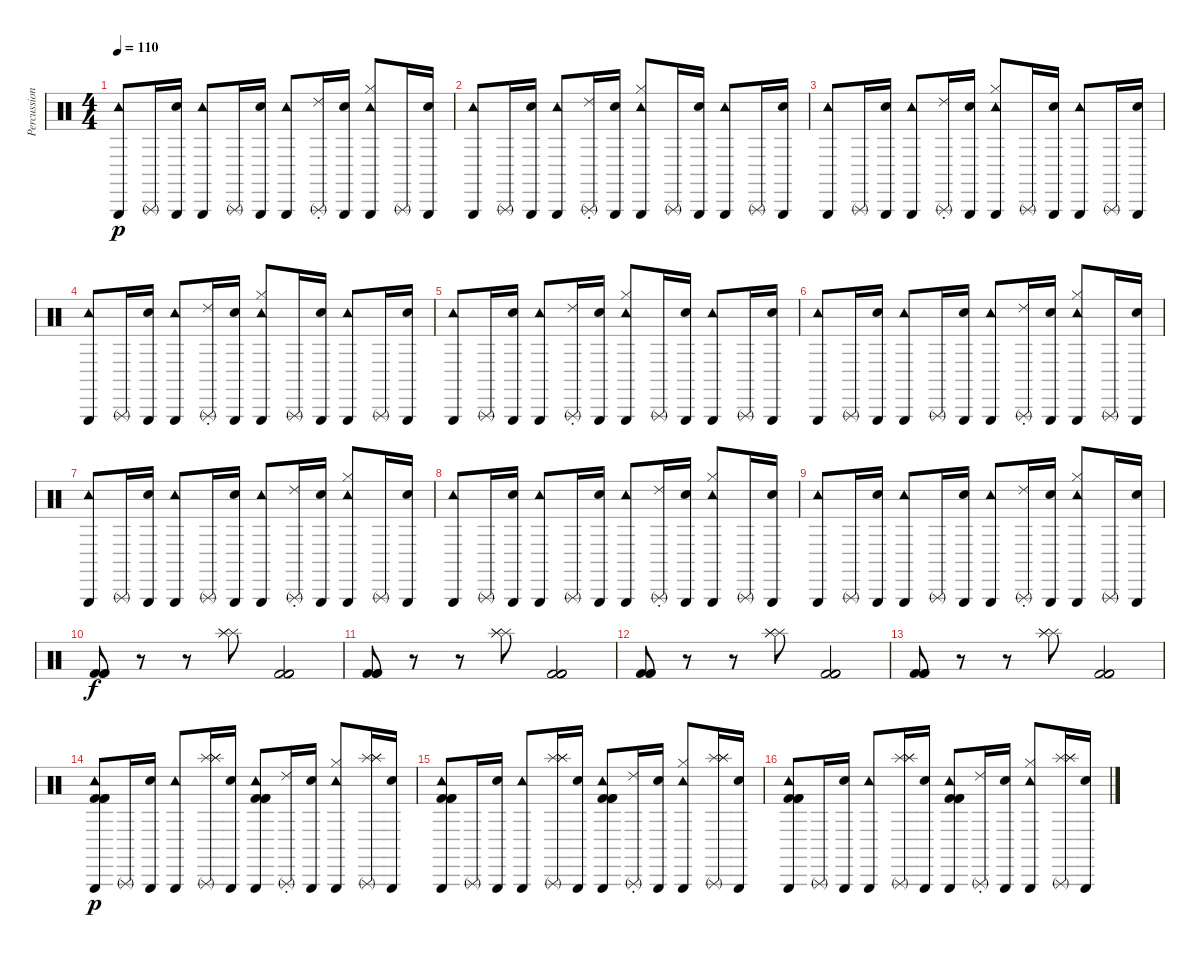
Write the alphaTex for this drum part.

\track ("Percussion" "Percussion") {instrument percussion}
\staff {score}
\articulation defaults
\ts (4 4)
\tempo 110
\clef neutral
\ks c
("Tambourine (hit)" "Triangle (hit)").8{dy p} "Triangle (rnute)".16 ("Metronome (bell)" "Triangle (hit)").16 ("Tambourine (hit)" "Triangle (hit)").8 "Triangle (rnute)".16 ("Metronome (bell)" "Triangle (hit)").16 ("Tambourine (hit)" "Triangle (hit)").8 ("Triangle (rnute)" "Ride (choke) 2").16 ("Metronome (bell)" "Triangle (hit)").16 ("Tambourine (hit)" "Triangle (hit)" "Hi-Hat (closed)").8 "Triangle (rnute)".16 ("Metronome (bell)" "Triangle (hit)").16 |
("Tambourine (hit)" "Triangle (hit)").8 "Triangle (rnute)".16 ("Metronome (bell)" "Triangle (hit)").16 ("Tambourine (hit)" "Triangle (hit)").8 ("Triangle (rnute)" "Ride (choke) 2").16 ("Metronome (bell)" "Triangle (hit)").16 ("Tambourine (hit)" "Triangle (hit)" "Hi-Hat (closed)").8 "Triangle (rnute)".16 ("Metronome (bell)" "Triangle (hit)").16 ("Tambourine (hit)" "Triangle (hit)").8 "Triangle (rnute)".16 ("Metronome (bell)" "Triangle (hit)").16 |
("Tambourine (hit)" "Triangle (hit)").8 "Triangle (rnute)".16 ("Metronome (bell)" "Triangle (hit)").16 ("Tambourine (hit)" "Triangle (hit)").8 ("Triangle (rnute)" "Ride (choke) 2").16 ("Metronome (bell)" "Triangle (hit)").16 ("Tambourine (hit)" "Triangle (hit)" "Hi-Hat (closed)").8 "Triangle (rnute)".16 ("Metronome (bell)" "Triangle (hit)").16 ("Tambourine (hit)" "Triangle (hit)").8 "Triangle (rnute)".16 ("Metronome (bell)" "Triangle (hit)").16 |
("Tambourine (hit)" "Triangle (hit)").8 "Triangle (rnute)".16 ("Metronome (bell)" "Triangle (hit)").16 ("Tambourine (hit)" "Triangle (hit)").8 ("Triangle (rnute)" "Ride (choke) 2").16 ("Metronome (bell)" "Triangle (hit)").16 ("Tambourine (hit)" "Triangle (hit)" "Hi-Hat (closed)").8 "Triangle (rnute)".16 ("Metronome (bell)" "Triangle (hit)").16 ("Tambourine (hit)" "Triangle (hit)").8 "Triangle (rnute)".16 ("Metronome (bell)" "Triangle (hit)").16 |
("Tambourine (hit)" "Triangle (hit)").8 "Triangle (rnute)".16 ("Metronome (bell)" "Triangle (hit)").16 ("Tambourine (hit)" "Triangle (hit)").8 ("Triangle (rnute)" "Ride (choke) 2").16 ("Metronome (bell)" "Triangle (hit)").16 ("Tambourine (hit)" "Triangle (hit)" "Hi-Hat (closed)").8 "Triangle (rnute)".16 ("Metronome (bell)" "Triangle (hit)").16 ("Tambourine (hit)" "Triangle (hit)").8 "Triangle (rnute)".16 ("Metronome (bell)" "Triangle (hit)").16 |
("Tambourine (hit)" "Triangle (hit)").8 "Triangle (rnute)".16 ("Metronome (bell)" "Triangle (hit)").16 ("Tambourine (hit)" "Triangle (hit)").8 "Triangle (rnute)".16 ("Metronome (bell)" "Triangle (hit)").16 ("Tambourine (hit)" "Triangle (hit)").8 ("Triangle (rnute)" "Ride (choke) 2").16 ("Metronome (bell)" "Triangle (hit)").16 ("Tambourine (hit)" "Triangle (hit)" "Hi-Hat (closed)").8 "Triangle (rnute)".16 ("Metronome (bell)" "Triangle (hit)").16 |
("Tambourine (hit)" "Triangle (hit)").8 "Triangle (rnute)".16 ("Metronome (bell)" "Triangle (hit)").16 ("Tambourine (hit)" "Triangle (hit)").8 "Triangle (rnute)".16 ("Metronome (bell)" "Triangle (hit)").16 ("Tambourine (hit)" "Triangle (hit)").8 ("Triangle (rnute)" "Ride (choke) 2").16 ("Metronome (bell)" "Triangle (hit)").16 ("Tambourine (hit)" "Triangle (hit)" "Hi-Hat (closed)").8 "Triangle (rnute)".16 ("Metronome (bell)" "Triangle (hit)").16 |
("Tambourine (hit)" "Triangle (hit)").8 "Triangle (rnute)".16 ("Metronome (bell)" "Triangle (hit)").16 ("Tambourine (hit)" "Triangle (hit)").8 "Triangle (rnute)".16 ("Metronome (bell)" "Triangle (hit)").16 ("Tambourine (hit)" "Triangle (hit)").8 ("Triangle (rnute)" "Ride (choke) 2").16 ("Metronome (bell)" "Triangle (hit)").16 ("Tambourine (hit)" "Triangle (hit)" "Hi-Hat (closed)").8 "Triangle (rnute)".16 ("Metronome (bell)" "Triangle (hit)").16 |
("Tambourine (hit)" "Triangle (hit)").8 "Triangle (rnute)".16 ("Metronome (bell)" "Triangle (hit)").16 ("Tambourine (hit)" "Triangle (hit)").8 "Triangle (rnute)".16 ("Metronome (bell)" "Triangle (hit)").16 ("Tambourine (hit)" "Triangle (hit)").8 ("Triangle (rnute)" "Ride (choke) 2").16 ("Metronome (bell)" "Triangle (hit)").16 ("Tambourine (hit)" "Triangle (hit)" "Hi-Hat (closed)").8 "Triangle (rnute)".16 ("Metronome (bell)" "Triangle (hit)").16 |
("Kick (hit) 2" "Kick (hit) 2" "Kick (hit) 2").8{dy f} r.8 r.8 ("Splash (hit)" "Splash (hit)" "Splash (hit)").8 ("Kick (hit) 2" "Kick (hit) 2" "Kick (hit) 2").2 |
("Kick (hit) 2" "Kick (hit) 2" "Kick (hit) 2").8 r.8 r.8 ("Splash (hit)" "Splash (hit)" "Splash (hit)").8 ("Kick (hit) 2" "Kick (hit) 2" "Kick (hit) 2").2 |
("Kick (hit) 2" "Kick (hit) 2" "Kick (hit) 2").8 r.8 r.8 ("Splash (hit)" "Splash (hit)" "Splash (hit)").8 ("Kick (hit) 2" "Kick (hit) 2" "Kick (hit) 2").2 |
("Kick (hit) 2" "Kick (hit) 2" "Kick (hit) 2").8 r.8 r.8 ("Splash (hit)" "Splash (hit)" "Splash (hit)").8 ("Kick (hit) 2" "Kick (hit) 2" "Kick (hit) 2").2 |
("Tambourine (hit)" "Triangle (hit)" "Kick (hit) 2" "Kick (hit) 2" "Kick (hit) 2").8{dy p} "Triangle (rnute)".16 ("Metronome (bell)" "Triangle (hit)").16 ("Tambourine (hit)" "Triangle (hit)").8 ("Triangle (rnute)" "Splash (hit)" "Splash (hit)" "Splash (hit)").16 ("Metronome (bell)" "Triangle (hit)").16 ("Tambourine (hit)" "Triangle (hit)" "Kick (hit) 2" "Kick (hit) 2" "Kick (hit) 2").8 ("Triangle (rnute)" "Ride (choke) 2").16 ("Metronome (bell)" "Triangle (hit)").16 ("Tambourine (hit)" "Triangle (hit)" "Hi-Hat (closed)").8 ("Triangle (rnute)" "Splash (hit)" "Splash (hit)" "Splash (hit)").16 ("Metronome (bell)" "Triangle (hit)").16 |
("Tambourine (hit)" "Triangle (hit)" "Kick (hit) 2" "Kick (hit) 2" "Kick (hit) 2").8 "Triangle (rnute)".16 ("Metronome (bell)" "Triangle (hit)").16 ("Tambourine (hit)" "Triangle (hit)").8 ("Triangle (rnute)" "Splash (hit)" "Splash (hit)" "Splash (hit)").16 ("Metronome (bell)" "Triangle (hit)").16 ("Tambourine (hit)" "Triangle (hit)" "Kick (hit) 2" "Kick (hit) 2" "Kick (hit) 2").8 ("Triangle (rnute)" "Ride (choke) 2").16 ("Metronome (bell)" "Triangle (hit)").16 ("Tambourine (hit)" "Triangle (hit)" "Hi-Hat (closed)").8 ("Triangle (rnute)" "Splash (hit)" "Splash (hit)" "Splash (hit)").16 ("Metronome (bell)" "Triangle (hit)").16 |
("Tambourine (hit)" "Triangle (hit)" "Kick (hit) 2" "Kick (hit) 2" "Kick (hit) 2").8 "Triangle (rnute)".16 ("Metronome (bell)" "Triangle (hit)").16 ("Tambourine (hit)" "Triangle (hit)").8 ("Triangle (rnute)" "Splash (hit)" "Splash (hit)" "Splash (hit)").16 ("Metronome (bell)" "Triangle (hit)").16 ("Tambourine (hit)" "Triangle (hit)" "Kick (hit) 2" "Kick (hit) 2" "Kick (hit) 2").8 ("Triangle (rnute)" "Ride (choke) 2").16 ("Metronome (bell)" "Triangle (hit)").16 ("Tambourine (hit)" "Triangle (hit)" "Hi-Hat (closed)").8 ("Triangle (rnute)" "Splash (hit)" "Splash (hit)" "Splash (hit)").16 ("Metronome (bell)" "Triangle (hit)").16
